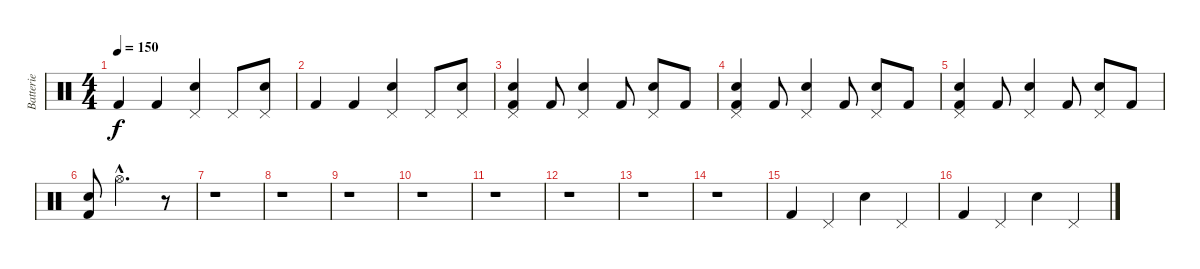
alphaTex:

\track ("Batterie" "Batterie") {instrument percussion}
\staff {score}
\articulation defaults
\ts (4 4)
\tempo 150
\clef neutral
\ks c "Kick (hit) 2".4{dy f} "Kick (hit) 2".4
("Pedal Hi-Hat (hit)" "Electric Snare (hit)").4 "Pedal Hi-Hat (hit)".8 ("Pedal Hi-Hat (hit)" "Electric Snare (hit)").8 |
"Kick (hit) 2".4 "Kick (hit) 2".4 ("Pedal Hi-Hat (hit)" "Electric Snare (hit)").4 "Pedal Hi-Hat (hit)".8 ("Pedal Hi-Hat (hit)" "Electric Snare (hit)").8 |
("Pedal Hi-Hat (hit)" "Electric Snare (hit)" "Kick (hit) 2").4 "Kick (hit) 2".8 ("Pedal Hi-Hat (hit)" "Electric Snare (hit)").4 "Kick (hit) 2".8 ("Pedal Hi-Hat (hit)" "Electric Snare (hit)").8 "Kick (hit) 2".8 |
("Pedal Hi-Hat (hit)" "Electric Snare (hit)" "Kick (hit) 2").4 "Kick (hit) 2".8 ("Pedal Hi-Hat (hit)" "Electric Snare (hit)").4 "Kick (hit) 2".8 ("Pedal Hi-Hat (hit)" "Electric Snare (hit)").8 "Kick (hit) 2".8 |
("Pedal Hi-Hat (hit)" "Electric Snare (hit)" "Kick (hit) 2").4 "Kick (hit) 2".8 ("Pedal Hi-Hat (hit)" "Electric Snare (hit)").4 "Kick (hit) 2".8 ("Pedal Hi-Hat (hit)" "Electric Snare (hit)").8 "Kick (hit) 2".8 |
("Electric Snare (hit)" "Kick (hit) 2").8 "Hi-Hat (open)"{hac}.2{d} r.8 |
r.1 |
r.1 |
r.1 |
r.1 |
r.1 |
r.1 |
r.1 |
r.1 |
"Kick (hit) 2".4 "Pedal Hi-Hat (hit)".4 "Electric Snare (hit)".4 "Pedal Hi-Hat (hit)".4 |
"Kick (hit) 2".4 "Pedal Hi-Hat (hit)".4 "Electric Snare (hit)".4 "Pedal Hi-Hat (hit)".4
